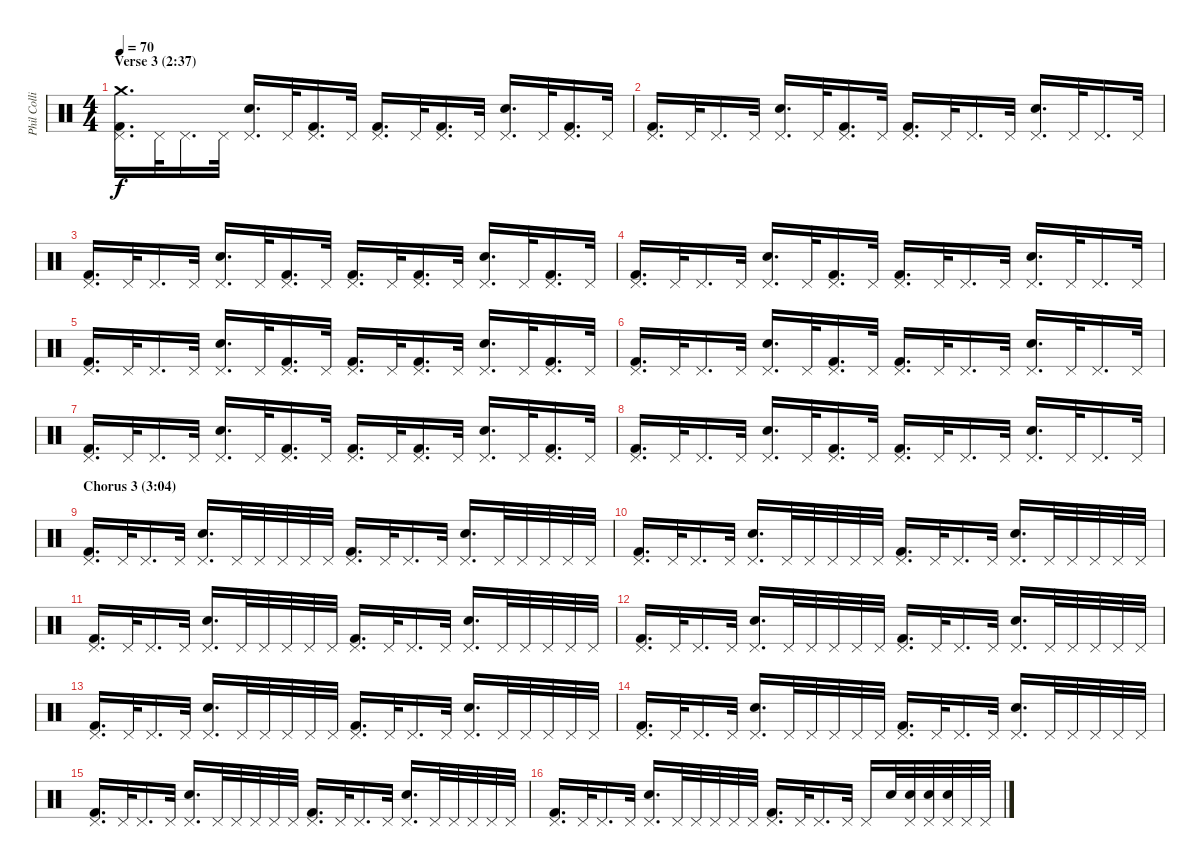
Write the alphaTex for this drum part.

\track ("Phil Collins (drums)" "Phil Colli") {instrument percussion}
\staff {score}
\articulation defaults
\ts (4 4)
\section ("" "Verse 3 (2:37)")
\tempo 70
\clef neutral
\ks c
("Crash medium (hit)" "Pedal Hi-Hat (hit)" "Kick (hit) 2").16{d dy f} "Pedal Hi-Hat (hit)".32 "Pedal Hi-Hat (hit)".16{d} "Pedal Hi-Hat (hit)".32 ("Pedal Hi-Hat (hit)" "Electric Snare (hit)").16{d} "Pedal Hi-Hat (hit)".32 ("Pedal Hi-Hat (hit)" "Kick (hit) 2").16{d} "Pedal Hi-Hat (hit)".32 ("Pedal Hi-Hat (hit)" "Kick (hit) 2").16{d} "Pedal Hi-Hat (hit)".32 ("Pedal Hi-Hat (hit)" "Kick (hit) 2").16{d} "Pedal Hi-Hat (hit)".32 ("Pedal Hi-Hat (hit)" "Electric Snare (hit)").16{d} "Pedal Hi-Hat (hit)".32 ("Pedal Hi-Hat (hit)" "Kick (hit) 2").16{d} "Pedal Hi-Hat (hit)".32 |
("Pedal Hi-Hat (hit)" "Kick (hit) 2").16{d} "Pedal Hi-Hat (hit)".32 "Pedal Hi-Hat (hit)".16{d} "Pedal Hi-Hat (hit)".32 ("Pedal Hi-Hat (hit)" "Electric Snare (hit)").16{d} "Pedal Hi-Hat (hit)".32 ("Pedal Hi-Hat (hit)" "Kick (hit) 2").16{d} "Pedal Hi-Hat (hit)".32 ("Pedal Hi-Hat (hit)" "Kick (hit) 2").16{d} "Pedal Hi-Hat (hit)".32 "Pedal Hi-Hat (hit)".16{d} "Pedal Hi-Hat (hit)".32 ("Pedal Hi-Hat (hit)" "Electric Snare (hit)").16{d} "Pedal Hi-Hat (hit)".32 "Pedal Hi-Hat (hit)".16{d} "Pedal Hi-Hat (hit)".32 |
("Pedal Hi-Hat (hit)" "Kick (hit) 2").16{d} "Pedal Hi-Hat (hit)".32 "Pedal Hi-Hat (hit)".16{d} "Pedal Hi-Hat (hit)".32 ("Pedal Hi-Hat (hit)" "Electric Snare (hit)").16{d} "Pedal Hi-Hat (hit)".32 ("Pedal Hi-Hat (hit)" "Kick (hit) 2").16{d} "Pedal Hi-Hat (hit)".32 ("Pedal Hi-Hat (hit)" "Kick (hit) 2").16{d} "Pedal Hi-Hat (hit)".32 ("Pedal Hi-Hat (hit)" "Kick (hit) 2").16{d} "Pedal Hi-Hat (hit)".32 ("Pedal Hi-Hat (hit)" "Electric Snare (hit)").16{d} "Pedal Hi-Hat (hit)".32 ("Pedal Hi-Hat (hit)" "Kick (hit) 2").16{d} "Pedal Hi-Hat (hit)".32 |
("Pedal Hi-Hat (hit)" "Kick (hit) 2").16{d} "Pedal Hi-Hat (hit)".32 "Pedal Hi-Hat (hit)".16{d} "Pedal Hi-Hat (hit)".32 ("Pedal Hi-Hat (hit)" "Electric Snare (hit)").16{d} "Pedal Hi-Hat (hit)".32 ("Pedal Hi-Hat (hit)" "Kick (hit) 2").16{d} "Pedal Hi-Hat (hit)".32 ("Pedal Hi-Hat (hit)" "Kick (hit) 2").16{d} "Pedal Hi-Hat (hit)".32 "Pedal Hi-Hat (hit)".16{d} "Pedal Hi-Hat (hit)".32 ("Pedal Hi-Hat (hit)" "Electric Snare (hit)").16{d} "Pedal Hi-Hat (hit)".32 "Pedal Hi-Hat (hit)".16{d} "Pedal Hi-Hat (hit)".32 |
("Pedal Hi-Hat (hit)" "Kick (hit) 2").16{d} "Pedal Hi-Hat (hit)".32 "Pedal Hi-Hat (hit)".16{d} "Pedal Hi-Hat (hit)".32 ("Pedal Hi-Hat (hit)" "Electric Snare (hit)").16{d} "Pedal Hi-Hat (hit)".32 ("Pedal Hi-Hat (hit)" "Kick (hit) 2").16{d} "Pedal Hi-Hat (hit)".32 ("Pedal Hi-Hat (hit)" "Kick (hit) 2").16{d} "Pedal Hi-Hat (hit)".32 ("Pedal Hi-Hat (hit)" "Kick (hit) 2").16{d} "Pedal Hi-Hat (hit)".32 ("Pedal Hi-Hat (hit)" "Electric Snare (hit)").16{d} "Pedal Hi-Hat (hit)".32 ("Pedal Hi-Hat (hit)" "Kick (hit) 2").16{d} "Pedal Hi-Hat (hit)".32 |
("Pedal Hi-Hat (hit)" "Kick (hit) 2").16{d} "Pedal Hi-Hat (hit)".32 "Pedal Hi-Hat (hit)".16{d} "Pedal Hi-Hat (hit)".32 ("Pedal Hi-Hat (hit)" "Electric Snare (hit)").16{d} "Pedal Hi-Hat (hit)".32 ("Pedal Hi-Hat (hit)" "Kick (hit) 2").16{d} "Pedal Hi-Hat (hit)".32 ("Pedal Hi-Hat (hit)" "Kick (hit) 2").16{d} "Pedal Hi-Hat (hit)".32 "Pedal Hi-Hat (hit)".16{d} "Pedal Hi-Hat (hit)".32 ("Pedal Hi-Hat (hit)" "Electric Snare (hit)").16{d} "Pedal Hi-Hat (hit)".32 "Pedal Hi-Hat (hit)".16{d} "Pedal Hi-Hat (hit)".32 |
("Pedal Hi-Hat (hit)" "Kick (hit) 2").16{d} "Pedal Hi-Hat (hit)".32 "Pedal Hi-Hat (hit)".16{d} "Pedal Hi-Hat (hit)".32 ("Pedal Hi-Hat (hit)" "Electric Snare (hit)").16{d} "Pedal Hi-Hat (hit)".32 ("Pedal Hi-Hat (hit)" "Kick (hit) 2").16{d} "Pedal Hi-Hat (hit)".32 ("Pedal Hi-Hat (hit)" "Kick (hit) 2").16{d} "Pedal Hi-Hat (hit)".32 ("Pedal Hi-Hat (hit)" "Kick (hit) 2").16{d} "Pedal Hi-Hat (hit)".32 ("Pedal Hi-Hat (hit)" "Electric Snare (hit)").16{d} "Pedal Hi-Hat (hit)".32 ("Pedal Hi-Hat (hit)" "Kick (hit) 2").16{d} "Pedal Hi-Hat (hit)".32 |
("Pedal Hi-Hat (hit)" "Kick (hit) 2").16{d} "Pedal Hi-Hat (hit)".32 "Pedal Hi-Hat (hit)".16{d} "Pedal Hi-Hat (hit)".32 ("Pedal Hi-Hat (hit)" "Electric Snare (hit)").16{d} "Pedal Hi-Hat (hit)".32 ("Pedal Hi-Hat (hit)" "Kick (hit) 2").16{d} "Pedal Hi-Hat (hit)".32 ("Pedal Hi-Hat (hit)" "Kick (hit) 2").16{d} "Pedal Hi-Hat (hit)".32 "Pedal Hi-Hat (hit)".16{d} "Pedal Hi-Hat (hit)".32 ("Pedal Hi-Hat (hit)" "Electric Snare (hit)").16{d} "Pedal Hi-Hat (hit)".32 "Pedal Hi-Hat (hit)".16{d} "Pedal Hi-Hat (hit)".32 |
\section ("" "Chorus 3 (3:04)")
("Pedal Hi-Hat (hit)" "Kick (hit) 2").16{d} "Pedal Hi-Hat (hit)".32 "Pedal Hi-Hat (hit)".16{d} "Pedal Hi-Hat (hit)".32 ("Pedal Hi-Hat (hit)" "Electric Snare (hit)").16{d} "Pedal Hi-Hat (hit)".32 "Pedal Hi-Hat (hit)".32 "Pedal Hi-Hat (hit)".32 "Pedal Hi-Hat (hit)".32 "Pedal Hi-Hat (hit)".32 ("Pedal Hi-Hat (hit)" "Kick (hit) 2").16{d} "Pedal Hi-Hat (hit)".32 "Pedal Hi-Hat (hit)".16{d} "Pedal Hi-Hat (hit)".32 ("Pedal Hi-Hat (hit)" "Electric Snare (hit)").16{d} "Pedal Hi-Hat (hit)".32 "Pedal Hi-Hat (hit)".32 "Pedal Hi-Hat (hit)".32 "Pedal Hi-Hat (hit)".32 "Pedal Hi-Hat (hit)".32 |
("Pedal Hi-Hat (hit)" "Kick (hit) 2").16{d} "Pedal Hi-Hat (hit)".32 "Pedal Hi-Hat (hit)".16{d} "Pedal Hi-Hat (hit)".32 ("Pedal Hi-Hat (hit)" "Electric Snare (hit)").16{d} "Pedal Hi-Hat (hit)".32 "Pedal Hi-Hat (hit)".32 "Pedal Hi-Hat (hit)".32 "Pedal Hi-Hat (hit)".32 "Pedal Hi-Hat (hit)".32 ("Pedal Hi-Hat (hit)" "Kick (hit) 2").16{d} "Pedal Hi-Hat (hit)".32 "Pedal Hi-Hat (hit)".16{d} "Pedal Hi-Hat (hit)".32 ("Pedal Hi-Hat (hit)" "Electric Snare (hit)").16{d} "Pedal Hi-Hat (hit)".32 "Pedal Hi-Hat (hit)".32 "Pedal Hi-Hat (hit)".32 "Pedal Hi-Hat (hit)".32 "Pedal Hi-Hat (hit)".32 |
("Pedal Hi-Hat (hit)" "Kick (hit) 2").16{d} "Pedal Hi-Hat (hit)".32 "Pedal Hi-Hat (hit)".16{d} "Pedal Hi-Hat (hit)".32 ("Pedal Hi-Hat (hit)" "Electric Snare (hit)").16{d} "Pedal Hi-Hat (hit)".32 "Pedal Hi-Hat (hit)".32 "Pedal Hi-Hat (hit)".32 "Pedal Hi-Hat (hit)".32 "Pedal Hi-Hat (hit)".32 ("Pedal Hi-Hat (hit)" "Kick (hit) 2").16{d} "Pedal Hi-Hat (hit)".32 "Pedal Hi-Hat (hit)".16{d} "Pedal Hi-Hat (hit)".32 ("Pedal Hi-Hat (hit)" "Electric Snare (hit)").16{d} "Pedal Hi-Hat (hit)".32 "Pedal Hi-Hat (hit)".32 "Pedal Hi-Hat (hit)".32 "Pedal Hi-Hat (hit)".32 "Pedal Hi-Hat (hit)".32 |
("Pedal Hi-Hat (hit)" "Kick (hit) 2").16{d} "Pedal Hi-Hat (hit)".32 "Pedal Hi-Hat (hit)".16{d} "Pedal Hi-Hat (hit)".32 ("Pedal Hi-Hat (hit)" "Electric Snare (hit)").16{d} "Pedal Hi-Hat (hit)".32 "Pedal Hi-Hat (hit)".32 "Pedal Hi-Hat (hit)".32 "Pedal Hi-Hat (hit)".32 "Pedal Hi-Hat (hit)".32 ("Pedal Hi-Hat (hit)" "Kick (hit) 2").16{d} "Pedal Hi-Hat (hit)".32 "Pedal Hi-Hat (hit)".16{d} "Pedal Hi-Hat (hit)".32 ("Pedal Hi-Hat (hit)" "Electric Snare (hit)").16{d} "Pedal Hi-Hat (hit)".32 "Pedal Hi-Hat (hit)".32 "Pedal Hi-Hat (hit)".32 "Pedal Hi-Hat (hit)".32 "Pedal Hi-Hat (hit)".32 |
("Pedal Hi-Hat (hit)" "Kick (hit) 2").16{d} "Pedal Hi-Hat (hit)".32 "Pedal Hi-Hat (hit)".16{d} "Pedal Hi-Hat (hit)".32 ("Pedal Hi-Hat (hit)" "Electric Snare (hit)").16{d} "Pedal Hi-Hat (hit)".32 "Pedal Hi-Hat (hit)".32 "Pedal Hi-Hat (hit)".32 "Pedal Hi-Hat (hit)".32 "Pedal Hi-Hat (hit)".32 ("Pedal Hi-Hat (hit)" "Kick (hit) 2").16{d} "Pedal Hi-Hat (hit)".32 "Pedal Hi-Hat (hit)".16{d} "Pedal Hi-Hat (hit)".32 ("Pedal Hi-Hat (hit)" "Electric Snare (hit)").16{d} "Pedal Hi-Hat (hit)".32 "Pedal Hi-Hat (hit)".32 "Pedal Hi-Hat (hit)".32 "Pedal Hi-Hat (hit)".32 "Pedal Hi-Hat (hit)".32 |
("Pedal Hi-Hat (hit)" "Kick (hit) 2").16{d} "Pedal Hi-Hat (hit)".32 "Pedal Hi-Hat (hit)".16{d} "Pedal Hi-Hat (hit)".32 ("Pedal Hi-Hat (hit)" "Electric Snare (hit)").16{d} "Pedal Hi-Hat (hit)".32 "Pedal Hi-Hat (hit)".32 "Pedal Hi-Hat (hit)".32 "Pedal Hi-Hat (hit)".32 "Pedal Hi-Hat (hit)".32 ("Pedal Hi-Hat (hit)" "Kick (hit) 2").16{d} "Pedal Hi-Hat (hit)".32 "Pedal Hi-Hat (hit)".16{d} "Pedal Hi-Hat (hit)".32 ("Pedal Hi-Hat (hit)" "Electric Snare (hit)").16{d} "Pedal Hi-Hat (hit)".32 "Pedal Hi-Hat (hit)".32 "Pedal Hi-Hat (hit)".32 "Pedal Hi-Hat (hit)".32 "Pedal Hi-Hat (hit)".32 |
("Pedal Hi-Hat (hit)" "Kick (hit) 2").16{d} "Pedal Hi-Hat (hit)".32 "Pedal Hi-Hat (hit)".16{d} "Pedal Hi-Hat (hit)".32 ("Pedal Hi-Hat (hit)" "Electric Snare (hit)").16{d} "Pedal Hi-Hat (hit)".32 "Pedal Hi-Hat (hit)".32 "Pedal Hi-Hat (hit)".32 "Pedal Hi-Hat (hit)".32 "Pedal Hi-Hat (hit)".32 ("Pedal Hi-Hat (hit)" "Kick (hit) 2").16{d} "Pedal Hi-Hat (hit)".32 "Pedal Hi-Hat (hit)".16{d} "Pedal Hi-Hat (hit)".32 ("Pedal Hi-Hat (hit)" "Electric Snare (hit)").16{d} "Pedal Hi-Hat (hit)".32 "Pedal Hi-Hat (hit)".32 "Pedal Hi-Hat (hit)".32 "Pedal Hi-Hat (hit)".32 "Pedal Hi-Hat (hit)".32 |
("Pedal Hi-Hat (hit)" "Kick (hit) 2").16{d} "Pedal Hi-Hat (hit)".32 "Pedal Hi-Hat (hit)".16{d} "Pedal Hi-Hat (hit)".32 ("Pedal Hi-Hat (hit)" "Electric Snare (hit)").16{d} "Pedal Hi-Hat (hit)".32 "Pedal Hi-Hat (hit)".32 "Pedal Hi-Hat (hit)".32 "Pedal Hi-Hat (hit)".32 "Pedal Hi-Hat (hit)".32 ("Pedal Hi-Hat (hit)" "Kick (hit) 2").16{d} "Pedal Hi-Hat (hit)".32 "Pedal Hi-Hat (hit)".16{d} "Pedal Hi-Hat (hit)".32 "Pedal Hi-Hat (hit)".16 "Electric Snare (hit)".32 ("Pedal Hi-Hat (hit)" "Electric Snare (hit)").32 ("Pedal Hi-Hat (hit)" "Electric Snare (hit)").32 ("Pedal Hi-Hat (hit)" "Electric Snare (hit)").32 "Pedal Hi-Hat (hit)".32 "Pedal Hi-Hat (hit)".32
